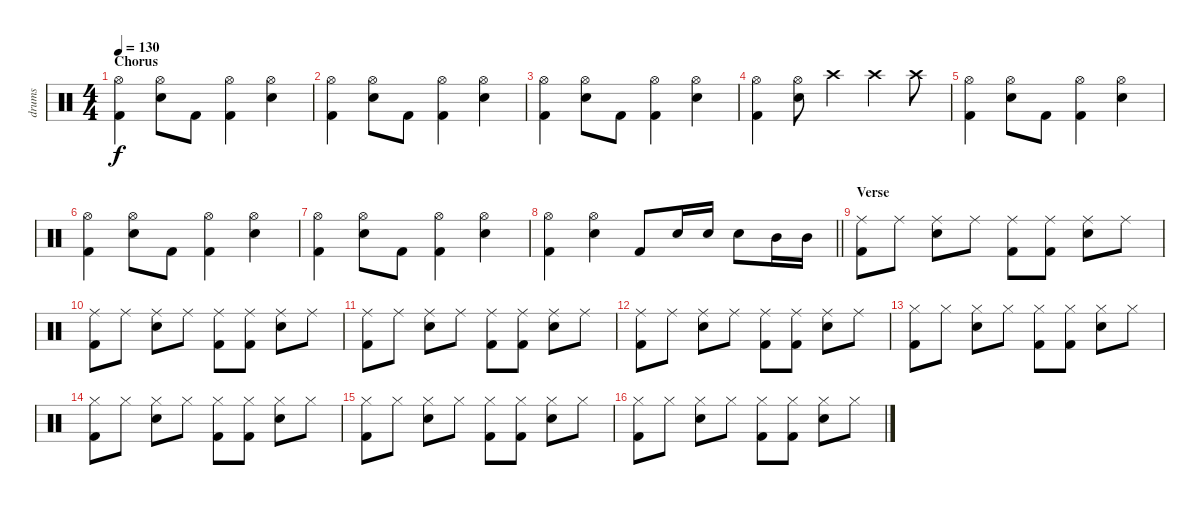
\track ("drums" "drums") {instrument percussion}
\staff {score}
\articulation defaults
\ts (4 4)
\section ("" "Chorus")
\tempo 130
\clef neutral
\ks c
("Hi-Hat (open)" "Kick (hit) 2").4{dy f} ("Hi-Hat (open)" "Snare (hit) 2").8 "Kick (hit) 2".8 ("Hi-Hat (open)" "Kick (hit) 2").4 ("Hi-Hat (open)" "Snare (hit) 2").4 |
("Hi-Hat (open)" "Kick (hit) 2").4 ("Hi-Hat (open)" "Snare (hit) 2").8 "Kick (hit) 2".8 ("Hi-Hat (open)" "Kick (hit) 2").4 ("Hi-Hat (open)" "Snare (hit) 2").4 |
("Hi-Hat (open)" "Kick (hit) 2").4 ("Hi-Hat (open)" "Snare (hit) 2").8 "Kick (hit) 2".8 ("Hi-Hat (open)" "Kick (hit) 2").4 ("Hi-Hat (open)" "Snare (hit) 2").4 |
("Hi-Hat (open)" "Kick (hit) 2").4 ("Hi-Hat (open)" "Snare (hit) 2").8 "Crash high (hit)".4 "Crash high (hit)".4 "Crash high (hit)".8 |
("Hi-Hat (open)" "Kick (hit) 2").4 ("Hi-Hat (open)" "Snare (hit) 2").8 "Kick (hit) 2".8 ("Hi-Hat (open)" "Kick (hit) 2").4 ("Hi-Hat (open)" "Snare (hit) 2").4 |
("Hi-Hat (open)" "Kick (hit) 2").4 ("Hi-Hat (open)" "Snare (hit) 2").8 "Kick (hit) 2".8 ("Hi-Hat (open)" "Kick (hit) 2").4 ("Hi-Hat (open)" "Snare (hit) 2").4 |
("Hi-Hat (open)" "Kick (hit) 2").4 ("Hi-Hat (open)" "Snare (hit) 2").8 "Kick (hit) 2".8 ("Hi-Hat (open)" "Kick (hit) 2").4 ("Hi-Hat (open)" "Snare (hit) 2").4 |
\barLineRight lightlight
("Hi-Hat (open)" "Kick (hit) 2").4 ("Hi-Hat (open)" "Snare (hit) 2").4 "Kick (hit) 2".8 "Snare (hit) 2".16 "Snare (hit) 2".16 "Snare (hit) 2".8 "Mid Tom (hit)".16 "Mid Tom (hit)".16 |
\section ("" "Verse")
("Ride (middle)" "Kick (hit) 2").8 "Ride (middle)".8 ("Ride (middle)" "Snare (hit) 2").8 "Ride (middle)".8 ("Ride (middle)" "Kick (hit) 2").8 ("Ride (middle)" "Kick (hit) 2").8 ("Ride (middle)" "Snare (hit) 2").8 "Ride (middle)".8 |
("Ride (middle)" "Kick (hit) 2").8 "Ride (middle)".8 ("Ride (middle)" "Snare (hit) 2").8 "Ride (middle)".8 ("Ride (middle)" "Kick (hit) 2").8 ("Ride (middle)" "Kick (hit) 2").8 ("Ride (middle)" "Snare (hit) 2").8 "Ride (middle)".8 |
("Ride (middle)" "Kick (hit) 2").8 "Ride (middle)".8 ("Ride (middle)" "Snare (hit) 2").8 "Ride (middle)".8 ("Ride (middle)" "Kick (hit) 2").8 ("Ride (middle)" "Kick (hit) 2").8 ("Ride (middle)" "Snare (hit) 2").8 "Ride (middle)".8 |
("Ride (middle)" "Kick (hit) 2").8 "Ride (middle)".8 ("Ride (middle)" "Snare (hit) 2").8 "Ride (middle)".8 ("Ride (middle)" "Kick (hit) 2").8 ("Ride (middle)" "Kick (hit) 2").8 ("Ride (middle)" "Snare (hit) 2").8 "Ride (middle)".8 |
("Hi-Hat (closed)" "Kick (hit) 2").8 "Hi-Hat (closed)".8 ("Hi-Hat (closed)" "Snare (hit) 2").8 "Hi-Hat (closed)".8 ("Hi-Hat (closed)" "Kick (hit) 2").8 ("Hi-Hat (closed)" "Kick (hit) 2").8 ("Hi-Hat (closed)" "Snare (hit) 2").8 "Hi-Hat (closed)".8 |
("Hi-Hat (closed)" "Kick (hit) 2").8 "Hi-Hat (closed)".8 ("Hi-Hat (closed)" "Snare (hit) 2").8 "Hi-Hat (closed)".8 ("Hi-Hat (closed)" "Kick (hit) 2").8 ("Hi-Hat (closed)" "Kick (hit) 2").8 ("Hi-Hat (closed)" "Snare (hit) 2").8 "Hi-Hat (closed)".8 |
("Hi-Hat (closed)" "Kick (hit) 2").8 "Hi-Hat (closed)".8 ("Hi-Hat (closed)" "Snare (hit) 2").8 "Hi-Hat (closed)".8 ("Hi-Hat (closed)" "Kick (hit) 2").8 ("Hi-Hat (closed)" "Kick (hit) 2").8 ("Hi-Hat (closed)" "Snare (hit) 2").8 "Hi-Hat (closed)".8 |
("Hi-Hat (closed)" "Kick (hit) 2").8 "Hi-Hat (closed)".8 ("Hi-Hat (closed)" "Snare (hit) 2").8 "Hi-Hat (closed)".8 ("Hi-Hat (closed)" "Kick (hit) 2").8 ("Hi-Hat (closed)" "Kick (hit) 2").8 ("Hi-Hat (closed)" "Snare (hit) 2").8 "Hi-Hat (closed)".8
